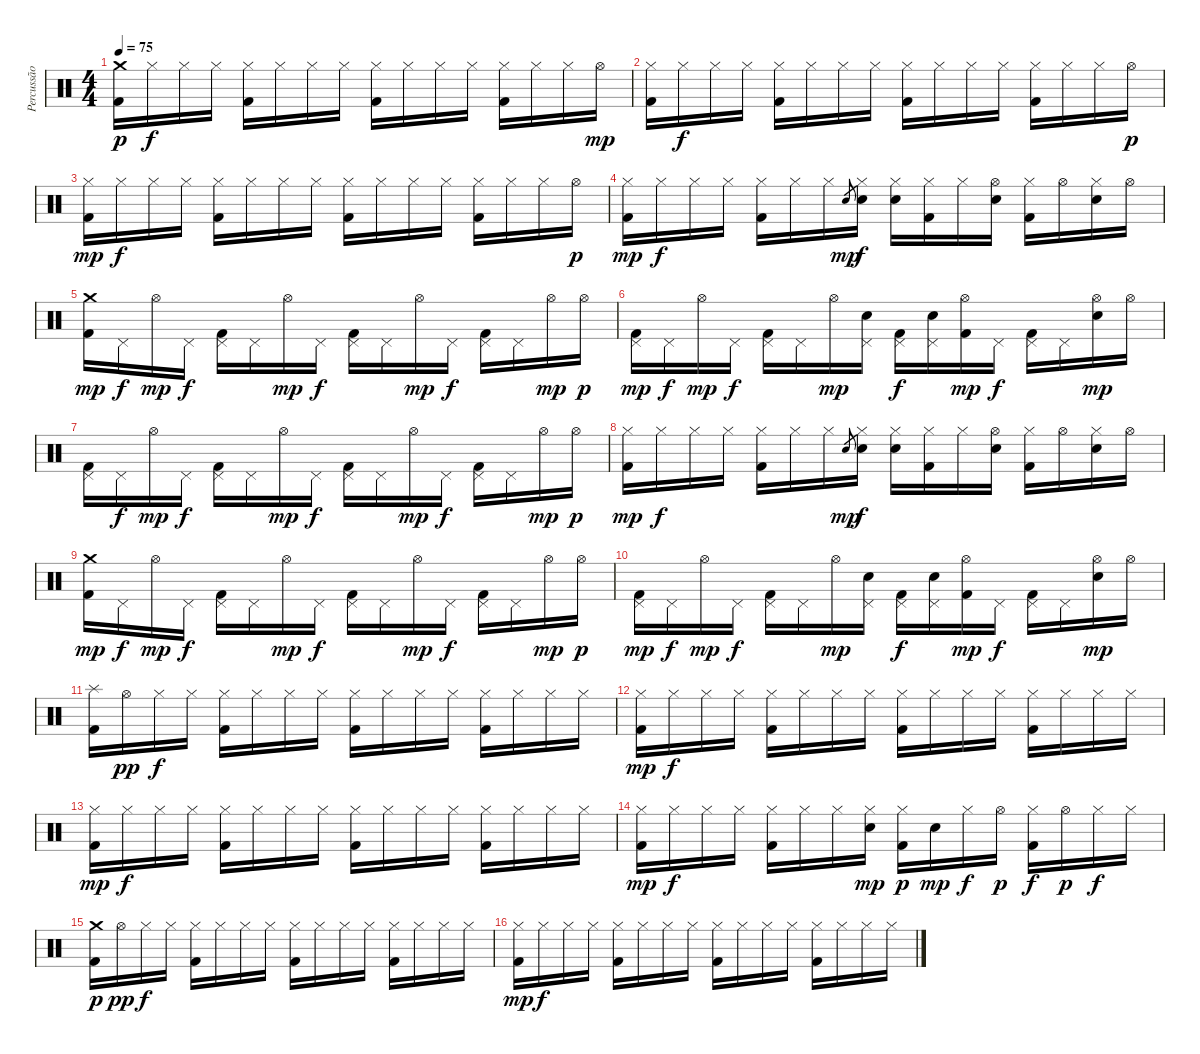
\track ("Percussão" "Percussão") {instrument percussion}
\staff {score}
\articulation defaults
\ts (4 4)
\tempo 75
\clef neutral
\ks c
("Crash medium (hit)" "Kick (hit) 2").16{dy p} "Hi-Hat (closed)".16{dy f} "Hi-Hat (closed)".16 "Hi-Hat (closed)".16 ("Hi-Hat (closed)" "Kick (hit) 2").16 "Hi-Hat (closed)".16 "Hi-Hat (closed)".16 "Hi-Hat (closed)".16 ("Hi-Hat (closed)" "Kick (hit) 2").16 "Hi-Hat (closed)".16 "Hi-Hat (closed)".16 "Hi-Hat (closed)".16 ("Hi-Hat (closed)" "Kick (hit) 2").16 "Hi-Hat (closed)".16 "Hi-Hat (closed)".16 "Hi-Hat (open)".16{dy mp} |
("Hi-Hat (closed)" "Kick (hit) 2").16 "Hi-Hat (closed)".16{dy f} "Hi-Hat (closed)".16 "Hi-Hat (closed)".16 ("Hi-Hat (closed)" "Kick (hit) 2").16 "Hi-Hat (closed)".16 "Hi-Hat (closed)".16 "Hi-Hat (closed)".16 ("Hi-Hat (closed)" "Kick (hit) 2").16 "Hi-Hat (closed)".16 "Hi-Hat (closed)".16 "Hi-Hat (closed)".16 ("Hi-Hat (closed)" "Kick (hit) 2").16 "Hi-Hat (closed)".16 "Hi-Hat (closed)".16 "Hi-Hat (open)".16{dy p} |
("Hi-Hat (closed)" "Kick (hit) 2").16{dy mp} "Hi-Hat (closed)".16{dy f} "Hi-Hat (closed)".16 "Hi-Hat (closed)".16 ("Hi-Hat (closed)" "Kick (hit) 2").16 "Hi-Hat (closed)".16 "Hi-Hat (closed)".16 "Hi-Hat (closed)".16 ("Hi-Hat (closed)" "Kick (hit) 2").16 "Hi-Hat (closed)".16 "Hi-Hat (closed)".16 "Hi-Hat (closed)".16 ("Hi-Hat (closed)" "Kick (hit) 2").16 "Hi-Hat (closed)".16 "Hi-Hat (closed)".16 "Hi-Hat (open)".16{dy p} |
("Hi-Hat (closed)" "Kick (hit) 2").16{dy mp} "Hi-Hat (closed)".16{dy f} "Hi-Hat (closed)".16 "Hi-Hat (closed)".16 ("Hi-Hat (closed)" "Kick (hit) 2").16 "Hi-Hat (closed)".16 "Hi-Hat (closed)".16 "Snare (hit) 2".8{gr dy mp} ("Hi-Hat (closed)" "Snare (hit) 2").16{dy f} ("Hi-Hat (closed)" "Snare (hit) 2").16 ("Hi-Hat (closed)" "Kick (hit) 2").16 "Hi-Hat (closed)".16 ("Hi-Hat (open)" "Snare (hit) 2").16 ("Hi-Hat (closed)" "Kick (hit) 2").16 "Hi-Hat (open)".16 ("Hi-Hat (closed)" "Snare (hit) 2").16 "Hi-Hat (open)".16 |
("Crash medium (hit)" "Kick (hit) 2").16{dy mp} "Pedal Hi-Hat (hit)".16{dy f} "Hi-Hat (open)".16{dy mp} "Pedal Hi-Hat (hit)".16{dy f} ("Pedal Hi-Hat (hit)" "Kick (hit) 2").16 "Pedal Hi-Hat (hit)".16 "Hi-Hat (open)".16{dy mp} "Pedal Hi-Hat (hit)".16{dy f} ("Pedal Hi-Hat (hit)" "Kick (hit) 2").16 "Pedal Hi-Hat (hit)".16 "Hi-Hat (open)".16{dy mp} "Pedal Hi-Hat (hit)".16{dy f} ("Pedal Hi-Hat (hit)" "Kick (hit) 2").16 "Pedal Hi-Hat (hit)".16 "Hi-Hat (open)".16{dy mp} "Hi-Hat (open)".16{dy p} |
("Pedal Hi-Hat (hit)" "Kick (hit) 2").16{dy mp} "Pedal Hi-Hat (hit)".16{dy f} "Hi-Hat (open)".16{dy mp} "Pedal Hi-Hat (hit)".16{dy f} ("Pedal Hi-Hat (hit)" "Kick (hit) 2").16 "Pedal Hi-Hat (hit)".16 "Hi-Hat (open)".16{dy mp} ("Pedal Hi-Hat (hit)" "Snare (hit) 2").16 ("Pedal Hi-Hat (hit)" "Kick (hit) 2").16{dy f} ("Pedal Hi-Hat (hit)" "Snare (hit) 2").16 ("Hi-Hat (open)" "Kick (hit) 2").16{dy mp} "Pedal Hi-Hat (hit)".16{dy f} ("Pedal Hi-Hat (hit)" "Kick (hit) 2").16 "Pedal Hi-Hat (hit)".16 ("Hi-Hat (open)" "Snare (hit) 2").16{dy mp} "Hi-Hat (open)".16 |
("Pedal Hi-Hat (hit)" "Kick (hit) 2").16 "Pedal Hi-Hat (hit)".16{dy f} "Hi-Hat (open)".16{dy mp} "Pedal Hi-Hat (hit)".16{dy f} ("Pedal Hi-Hat (hit)" "Kick (hit) 2").16 "Pedal Hi-Hat (hit)".16 "Hi-Hat (open)".16{dy mp} "Pedal Hi-Hat (hit)".16{dy f} ("Pedal Hi-Hat (hit)" "Kick (hit) 2").16 "Pedal Hi-Hat (hit)".16 "Hi-Hat (open)".16{dy mp} "Pedal Hi-Hat (hit)".16{dy f} ("Pedal Hi-Hat (hit)" "Kick (hit) 2").16 "Pedal Hi-Hat (hit)".16 "Hi-Hat (open)".16{dy mp} "Hi-Hat (open)".16{dy p} |
("Hi-Hat (closed)" "Kick (hit) 2").16{dy mp} "Hi-Hat (closed)".16{dy f} "Hi-Hat (closed)".16 "Hi-Hat (closed)".16 ("Hi-Hat (closed)" "Kick (hit) 2").16 "Hi-Hat (closed)".16 "Hi-Hat (closed)".16 "Snare (hit) 2".8{gr dy mp} ("Hi-Hat (closed)" "Snare (hit) 2").16{dy f} ("Hi-Hat (closed)" "Snare (hit) 2").16 ("Hi-Hat (closed)" "Kick (hit) 2").16 "Hi-Hat (closed)".16 ("Hi-Hat (open)" "Snare (hit) 2").16 ("Hi-Hat (closed)" "Kick (hit) 2").16 "Hi-Hat (open)".16 ("Hi-Hat (closed)" "Snare (hit) 2").16 "Hi-Hat (open)".16 |
("Crash medium (hit)" "Kick (hit) 2").16{dy mp} "Pedal Hi-Hat (hit)".16{dy f} "Hi-Hat (open)".16{dy mp} "Pedal Hi-Hat (hit)".16{dy f} ("Pedal Hi-Hat (hit)" "Kick (hit) 2").16 "Pedal Hi-Hat (hit)".16 "Hi-Hat (open)".16{dy mp} "Pedal Hi-Hat (hit)".16{dy f} ("Pedal Hi-Hat (hit)" "Kick (hit) 2").16 "Pedal Hi-Hat (hit)".16 "Hi-Hat (open)".16{dy mp} "Pedal Hi-Hat (hit)".16{dy f} ("Pedal Hi-Hat (hit)" "Kick (hit) 2").16 "Pedal Hi-Hat (hit)".16 "Hi-Hat (open)".16{dy mp} "Hi-Hat (open)".16{dy p} |
("Pedal Hi-Hat (hit)" "Kick (hit) 2").16{dy mp} "Pedal Hi-Hat (hit)".16{dy f} "Hi-Hat (open)".16{dy mp} "Pedal Hi-Hat (hit)".16{dy f} ("Pedal Hi-Hat (hit)" "Kick (hit) 2").16 "Pedal Hi-Hat (hit)".16 "Hi-Hat (open)".16{dy mp} ("Pedal Hi-Hat (hit)" "Snare (hit) 2").16 ("Pedal Hi-Hat (hit)" "Kick (hit) 2").16{dy f} ("Pedal Hi-Hat (hit)" "Snare (hit) 2").16 ("Hi-Hat (open)" "Kick (hit) 2").16{dy mp} "Pedal Hi-Hat (hit)".16{dy f} ("Pedal Hi-Hat (hit)" "Kick (hit) 2").16 "Pedal Hi-Hat (hit)".16 ("Hi-Hat (open)" "Snare (hit) 2").16{dy mp} "Hi-Hat (open)".16 |
("Splash (hit)" "Kick (hit) 2").16 "Hi-Hat (open)".16{dy pp} "Hi-Hat (closed)".16{dy f} "Hi-Hat (closed)".16 ("Hi-Hat (closed)" "Kick (hit) 2").16 "Hi-Hat (closed)".16 "Hi-Hat (closed)".16 "Hi-Hat (closed)".16 ("Hi-Hat (closed)" "Kick (hit) 2").16 "Hi-Hat (closed)".16 "Hi-Hat (closed)".16 "Hi-Hat (closed)".16 ("Hi-Hat (closed)" "Kick (hit) 2").16 "Hi-Hat (closed)".16 "Hi-Hat (closed)".16 "Hi-Hat (closed)".16 |
("Hi-Hat (closed)" "Kick (hit) 2").16{dy mp} "Hi-Hat (closed)".16{dy f} "Hi-Hat (closed)".16 "Hi-Hat (closed)".16 ("Hi-Hat (closed)" "Kick (hit) 2").16 "Hi-Hat (closed)".16 "Hi-Hat (closed)".16 "Hi-Hat (closed)".16 ("Hi-Hat (closed)" "Kick (hit) 2").16 "Hi-Hat (closed)".16 "Hi-Hat (closed)".16 "Hi-Hat (closed)".16 ("Hi-Hat (closed)" "Kick (hit) 2").16 "Hi-Hat (closed)".16 "Hi-Hat (closed)".16 "Hi-Hat (closed)".16 |
("Hi-Hat (closed)" "Kick (hit) 2").16{dy mp} "Hi-Hat (closed)".16{dy f} "Hi-Hat (closed)".16 "Hi-Hat (closed)".16 ("Hi-Hat (closed)" "Kick (hit) 2").16 "Hi-Hat (closed)".16 "Hi-Hat (closed)".16 "Hi-Hat (closed)".16 ("Hi-Hat (closed)" "Kick (hit) 2").16 "Hi-Hat (closed)".16 "Hi-Hat (closed)".16 "Hi-Hat (closed)".16 ("Hi-Hat (closed)" "Kick (hit) 2").16 "Hi-Hat (closed)".16 "Hi-Hat (closed)".16 "Hi-Hat (closed)".16 |
("Hi-Hat (closed)" "Kick (hit) 2").16{dy mp} "Hi-Hat (closed)".16{dy f} "Hi-Hat (closed)".16 "Hi-Hat (closed)".16 ("Hi-Hat (closed)" "Kick (hit) 2").16 "Hi-Hat (closed)".16 "Hi-Hat (closed)".16 ("Hi-Hat (closed)" "Snare (hit) 2").16{dy mp} ("Hi-Hat (closed)" "Kick (hit) 2").16{dy p} "Snare (hit) 2".16{dy mp} "Hi-Hat (closed)".16{dy f} "Hi-Hat (open)".16{dy p} ("Hi-Hat (closed)" "Kick (hit) 2").16{dy f} "Hi-Hat (open)".16{dy p} "Hi-Hat (closed)".16{dy f} "Hi-Hat (closed)".16 |
("Crash medium (hit)" "Kick (hit) 2").16{dy p} "Hi-Hat (open)".16{dy pp} "Hi-Hat (closed)".16{dy f} "Hi-Hat (closed)".16 ("Hi-Hat (closed)" "Kick (hit) 2").16 "Hi-Hat (closed)".16 "Hi-Hat (closed)".16 "Hi-Hat (closed)".16 ("Hi-Hat (closed)" "Kick (hit) 2").16 "Hi-Hat (closed)".16 "Hi-Hat (closed)".16 "Hi-Hat (closed)".16 ("Hi-Hat (closed)" "Kick (hit) 2").16 "Hi-Hat (closed)".16 "Hi-Hat (closed)".16 "Hi-Hat (closed)".16 |
("Hi-Hat (closed)" "Kick (hit) 2").16{dy mp} "Hi-Hat (closed)".16{dy f} "Hi-Hat (closed)".16 "Hi-Hat (closed)".16 ("Hi-Hat (closed)" "Kick (hit) 2").16 "Hi-Hat (closed)".16 "Hi-Hat (closed)".16 "Hi-Hat (closed)".16 ("Hi-Hat (closed)" "Kick (hit) 2").16 "Hi-Hat (closed)".16 "Hi-Hat (closed)".16 "Hi-Hat (closed)".16 ("Hi-Hat (closed)" "Kick (hit) 2").16 "Hi-Hat (closed)".16 "Hi-Hat (closed)".16 "Hi-Hat (closed)".16
